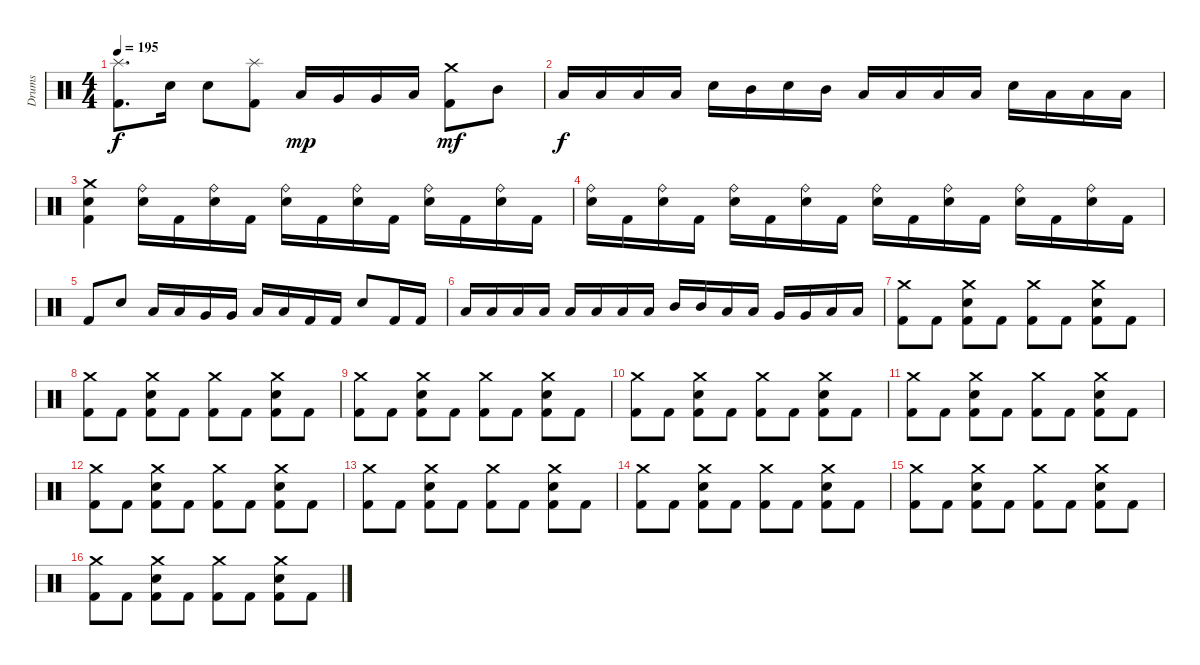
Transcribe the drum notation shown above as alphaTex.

\track ("Drums" "Drums") {instrument percussion}
\staff {score}
\articulation defaults
\ts (4 4)
\tempo 195
\clef neutral
\ks c
("Splash (hit)" "Kick (hit) 2").8{d dy f} "Electric Snare (hit)".16 "Electric Snare (hit)".8 ("Splash (hit)" "Kick (hit) 2").8 "Low Tom (hit)".16{dy mp} "Very Low Tom (hit)".16 "Very Low Tom (hit)".16 "Low Floor Tom (hit)".16 ("Crash medium (hit)" "Kick (hit) 2").8{dy mf} "Mid Tom (hit)".8 |
"Low Floor Tom (hit)".16{dy f} "Low Floor Tom (hit)".16 "Low Floor Tom (hit)".16 "Low Floor Tom (hit)".16 "Electric Snare (hit)".16 "Mid Tom (hit)".16 "Electric Snare (hit)".16 "Mid Tom (hit)".16 "Low Tom (hit)".16 "Low Tom (hit)".16 "Low Floor Tom (hit)".16 "Low Floor Tom (hit)".16 "Electric Snare (hit)".16 "Low Floor Tom (hit)".16 "Low Floor Tom (hit)".16 "Low Floor Tom (hit)".16 |
("Crash medium (hit)" "Electric Snare (hit)" "Kick (hit) 2").4 ("Ride (bell)" "Electric Snare (hit)").16 "Kick (hit) 2".16 ("Ride (bell)" "Electric Snare (hit)").16 "Kick (hit) 2".16 ("Ride (bell)" "Electric Snare (hit)").16 "Kick (hit) 2".16 ("Ride (bell)" "Electric Snare (hit)").16 "Kick (hit) 2".16 ("Ride (bell)" "Electric Snare (hit)").16 "Kick (hit) 2".16 ("Ride (bell)" "Electric Snare (hit)").16 "Kick (hit) 2".16 |
("Ride (bell)" "Electric Snare (hit)").16 "Kick (hit) 2".16 ("Ride (bell)" "Electric Snare (hit)").16 "Kick (hit) 2".16 ("Ride (bell)" "Electric Snare (hit)").16 "Kick (hit) 2".16 ("Ride (bell)" "Electric Snare (hit)").16 "Kick (hit) 2".16 ("Ride (bell)" "Electric Snare (hit)").16 "Kick (hit) 2".16 ("Ride (bell)" "Electric Snare (hit)").16 "Kick (hit) 2".16 ("Ride (bell)" "Electric Snare (hit)").16 "Kick (hit) 2".16 ("Ride (bell)" "Electric Snare (hit)").16 "Kick (hit) 2".16 |
"Kick (hit) 2".8 "Electric Snare (hit)".8 "Low Tom (hit)".16 "Low Tom (hit)".16 "Very Low Tom (hit)".16 "Very Low Tom (hit)".16 "Low Floor Tom (hit)".16 "Low Floor Tom (hit)".16 "Kick (hit) 2".16 "Kick (hit) 2".16 "Electric Snare (hit)".8 "Kick (hit) 2".16 "Kick (hit) 2".16 |
"Low Floor Tom (hit)".16 "Low Floor Tom (hit)".16 "Low Tom (hit)".16 "Low Tom (hit)".16 "Low Floor Tom (hit)".16 "Low Floor Tom (hit)".16 "Low Floor Tom (hit)".16 "Low Floor Tom (hit)".16 "Mid Tom (hit)".16 "Mid Tom (hit)".16 "Low Tom (hit)".16 "Low Tom (hit)".16 "Very Low Tom (hit)".16 "Very Low Tom (hit)".16 "Low Floor Tom (hit)".16 "Low Floor Tom (hit)".16 |
("Crash medium (hit)" "Kick (hit) 2").8 "Kick (hit) 2".8 ("Crash medium (hit)" "Electric Snare (hit)" "Kick (hit) 2").8 "Kick (hit) 2".8 ("Crash medium (hit)" "Kick (hit) 2").8 "Kick (hit) 2".8 ("Crash medium (hit)" "Electric Snare (hit)" "Kick (hit) 2").8 "Kick (hit) 2".8 |
("Crash medium (hit)" "Kick (hit) 2").8 "Kick (hit) 2".8 ("Crash medium (hit)" "Electric Snare (hit)" "Kick (hit) 2").8 "Kick (hit) 2".8 ("Crash medium (hit)" "Kick (hit) 2").8 "Kick (hit) 2".8 ("Crash medium (hit)" "Electric Snare (hit)" "Kick (hit) 2").8 "Kick (hit) 2".8 |
("Crash medium (hit)" "Kick (hit) 2").8 "Kick (hit) 2".8 ("Crash medium (hit)" "Electric Snare (hit)" "Kick (hit) 2").8 "Kick (hit) 2".8 ("Crash medium (hit)" "Kick (hit) 2").8 "Kick (hit) 2".8 ("Crash medium (hit)" "Electric Snare (hit)" "Kick (hit) 2").8 "Kick (hit) 2".8 |
("Crash medium (hit)" "Kick (hit) 2").8 "Kick (hit) 2".8 ("Crash medium (hit)" "Electric Snare (hit)" "Kick (hit) 2").8 "Kick (hit) 2".8 ("Crash medium (hit)" "Kick (hit) 2").8 "Kick (hit) 2".8 ("Crash medium (hit)" "Electric Snare (hit)" "Kick (hit) 2").8 "Kick (hit) 2".8 |
("Crash medium (hit)" "Kick (hit) 2").8 "Kick (hit) 2".8 ("Crash medium (hit)" "Electric Snare (hit)" "Kick (hit) 2").8 "Kick (hit) 2".8 ("Crash medium (hit)" "Kick (hit) 2").8 "Kick (hit) 2".8 ("Crash medium (hit)" "Electric Snare (hit)" "Kick (hit) 2").8 "Kick (hit) 2".8 |
("Crash medium (hit)" "Kick (hit) 2").8 "Kick (hit) 2".8 ("Crash medium (hit)" "Electric Snare (hit)" "Kick (hit) 2").8 "Kick (hit) 2".8 ("Crash medium (hit)" "Kick (hit) 2").8 "Kick (hit) 2".8 ("Crash medium (hit)" "Electric Snare (hit)" "Kick (hit) 2").8 "Kick (hit) 2".8 |
("Crash medium (hit)" "Kick (hit) 2").8 "Kick (hit) 2".8 ("Crash medium (hit)" "Electric Snare (hit)" "Kick (hit) 2").8 "Kick (hit) 2".8 ("Crash medium (hit)" "Kick (hit) 2").8 "Kick (hit) 2".8 ("Crash medium (hit)" "Electric Snare (hit)" "Kick (hit) 2").8 "Kick (hit) 2".8 |
("Crash medium (hit)" "Kick (hit) 2").8 "Kick (hit) 2".8 ("Crash medium (hit)" "Electric Snare (hit)" "Kick (hit) 2").8 "Kick (hit) 2".8 ("Crash medium (hit)" "Kick (hit) 2").8 "Kick (hit) 2".8 ("Crash medium (hit)" "Electric Snare (hit)" "Kick (hit) 2").8 "Kick (hit) 2".8 |
("Crash medium (hit)" "Kick (hit) 2").8 "Kick (hit) 2".8 ("Crash medium (hit)" "Electric Snare (hit)" "Kick (hit) 2").8 "Kick (hit) 2".8 ("Crash medium (hit)" "Kick (hit) 2").8 "Kick (hit) 2".8 ("Crash medium (hit)" "Electric Snare (hit)" "Kick (hit) 2").8 "Kick (hit) 2".8 |
("Crash medium (hit)" "Kick (hit) 2").8 "Kick (hit) 2".8 ("Crash medium (hit)" "Electric Snare (hit)" "Kick (hit) 2").8 "Kick (hit) 2".8 ("Crash medium (hit)" "Kick (hit) 2").8 "Kick (hit) 2".8 ("Crash medium (hit)" "Electric Snare (hit)" "Kick (hit) 2").8 "Kick (hit) 2".8
